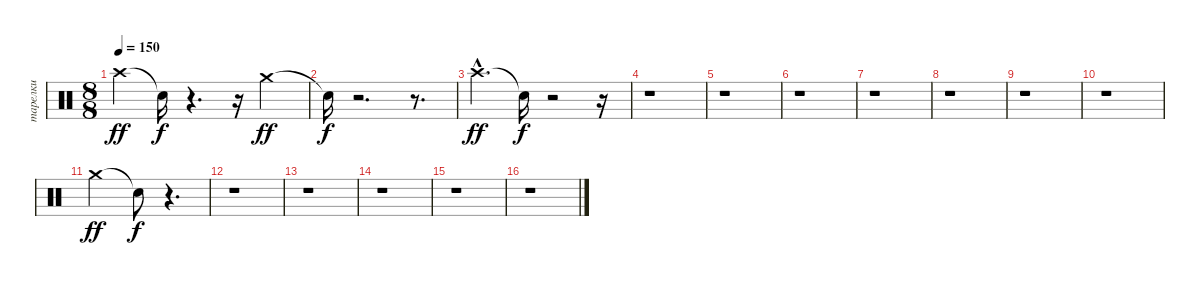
\track ("тарелки" "тарелки") {instrument percussion}
\staff {score}
\articulation defaults
\ts (8 8)
\tempo 150
\clef neutral
\ks c "Crash high (hit)".4{dy ff} "Snare (hit)"{t}.16{dy f}
r.4{d} r.16 "Crash medium (hit)".4{dy ff} |
"Snare (hit)"{t}.16{dy f} r.2{d} r.8{d} |
"Crash high (hit)"{hac}.4{d dy ff} "Snare (hit)"{t}.16{dy f} r.2 r.16 |
r.1 |
r.1 |
r.1 |
r.1 |
r.1 |
r.1 |
r.1 |
"Crash medium (hit)".2{dy ff} "Snare (hit)"{t}.8{dy f} r.4{d} |
r.1 |
r.1 |
r.1 |
r.1 |
r.1
